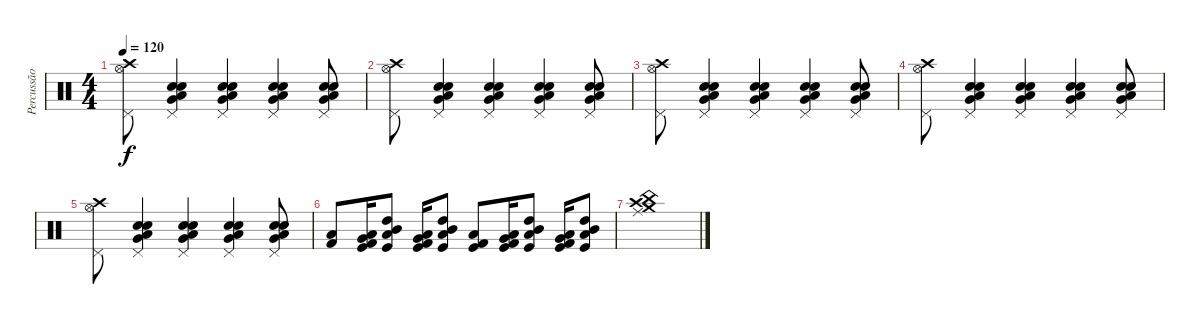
\track ("Percussão" "Percussão") {instrument percussion}
\staff {score}
\articulation defaults
\ts (4 4)
\tempo 120
\clef neutral
\ks c
("Hi-Hat (open)" "Crash high (hit)" "Pedal Hi-Hat (hit)").8{dy f} ("Pedal Hi-Hat (hit)" "Snare (hit) 2" "Electric Snare (hit)" "Low Tom (hit)" "Very Low Tom (hit)").4 ("Pedal Hi-Hat (hit)" "Snare (hit) 2" "Electric Snare (hit)" "Low Tom (hit)" "Very Low Tom (hit)").4 ("Pedal Hi-Hat (hit)" "Snare (hit) 2" "Electric Snare (hit)" "Low Tom (hit)" "Very Low Tom (hit)").4 ("Pedal Hi-Hat (hit)" "Snare (hit) 2" "Electric Snare (hit)" "Low Tom (hit)" "Very Low Tom (hit)").8 |
("Hi-Hat (open)" "Crash high (hit)" "Pedal Hi-Hat (hit)").8 ("Pedal Hi-Hat (hit)" "Snare (hit) 2" "Electric Snare (hit)" "Low Tom (hit)" "Very Low Tom (hit)").4 ("Pedal Hi-Hat (hit)" "Snare (hit) 2" "Electric Snare (hit)" "Low Tom (hit)" "Very Low Tom (hit)").4 ("Pedal Hi-Hat (hit)" "Snare (hit) 2" "Electric Snare (hit)" "Low Tom (hit)" "Very Low Tom (hit)").4 ("Pedal Hi-Hat (hit)" "Snare (hit) 2" "Electric Snare (hit)" "Low Tom (hit)" "Very Low Tom (hit)").8 |
("Hi-Hat (open)" "Crash high (hit)" "Pedal Hi-Hat (hit)").8 ("Pedal Hi-Hat (hit)" "Snare (hit) 2" "Electric Snare (hit)" "Low Tom (hit)" "Very Low Tom (hit)").4 ("Pedal Hi-Hat (hit)" "Snare (hit) 2" "Electric Snare (hit)" "Low Tom (hit)" "Very Low Tom (hit)").4 ("Pedal Hi-Hat (hit)" "Snare (hit) 2" "Electric Snare (hit)" "Low Tom (hit)" "Very Low Tom (hit)").4 ("Pedal Hi-Hat (hit)" "Snare (hit) 2" "Electric Snare (hit)" "Low Tom (hit)" "Very Low Tom (hit)").8 |
("Hi-Hat (open)" "Crash high (hit)" "Pedal Hi-Hat (hit)").8 ("Pedal Hi-Hat (hit)" "Snare (hit) 2" "Electric Snare (hit)" "Low Tom (hit)" "Very Low Tom (hit)").4 ("Pedal Hi-Hat (hit)" "Snare (hit) 2" "Electric Snare (hit)" "Low Tom (hit)" "Very Low Tom (hit)").4 ("Pedal Hi-Hat (hit)" "Snare (hit) 2" "Electric Snare (hit)" "Low Tom (hit)" "Very Low Tom (hit)").4 ("Pedal Hi-Hat (hit)" "Snare (hit) 2" "Electric Snare (hit)" "Low Tom (hit)" "Very Low Tom (hit)").8 |
("Hi-Hat (open)" "Crash high (hit)" "Pedal Hi-Hat (hit)").8 ("Pedal Hi-Hat (hit)" "Snare (hit) 2" "Electric Snare (hit)" "Low Tom (hit)" "Very Low Tom (hit)").4 ("Pedal Hi-Hat (hit)" "Snare (hit) 2" "Electric Snare (hit)" "Low Tom (hit)" "Very Low Tom (hit)").4 ("Pedal Hi-Hat (hit)" "Snare (hit) 2" "Electric Snare (hit)" "Low Tom (hit)" "Very Low Tom (hit)").4 ("Pedal Hi-Hat (hit)" "Snare (hit) 2" "Electric Snare (hit)" "Low Tom (hit)" "Very Low Tom (hit)").8 |
("Kick (hit) 2" "Low Floor Tom (hit)").8 ("Low Tom (hit)" "Kick (hit) 2" "Very Low Tom (hit)" "Kick (hit)").16 ("Low Tom (hit)" "Mid Tom (hit)" "Kick (hit)" "High Tom (hit)").8 ("Low Tom (hit)" "Kick (hit) 2" "Very Low Tom (hit)" "Kick (hit)").16 ("Low Tom (hit)" "Mid Tom (hit)" "Kick (hit)" "High Tom (hit)").8 ("Kick (hit) 2" "Kick (hit)" "Low Floor Tom (hit)").8 ("Low Tom (hit)" "Kick (hit) 2" "Very Low Tom (hit)" "Kick (hit)").16 ("Low Tom (hit)" "Mid Tom (hit)" "Kick (hit)" "High Tom (hit)").8 ("Low Tom (hit)" "Kick (hit) 2" "Very Low Tom (hit)" "Kick (hit)").16 ("Low Tom (hit)" "Mid Tom (hit)" "Kick (hit)" "High Tom (hit)").8 |
("Crash high (hit)" "China (hit)" "Ride (middle)" "Crash medium (hit)").1
